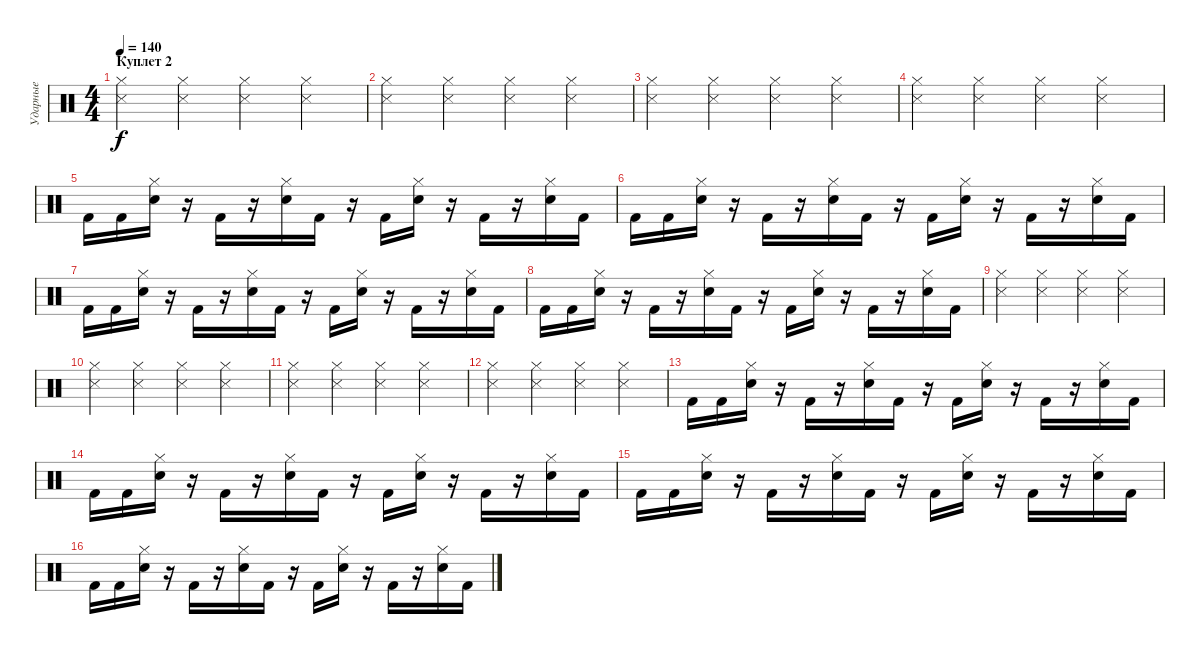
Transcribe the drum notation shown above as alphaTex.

\track ("Ударные" "Ударные") {instrument percussion}
\staff {score}
\articulation defaults
\ts (4 4)
\section ("" "Куплет 2")
\tempo 140
\clef neutral
\ks c
("Hi-Hat (closed)" "Snare (side stick) 3").4{dy f} ("Hi-Hat (closed)" "Snare (side stick) 3").4 ("Hi-Hat (closed)" "Snare (side stick) 3").4 ("Hi-Hat (closed)" "Snare (side stick) 3").4 |
("Hi-Hat (closed)" "Snare (side stick) 3").4 ("Hi-Hat (closed)" "Snare (side stick) 3").4 ("Hi-Hat (closed)" "Snare (side stick) 3").4 ("Hi-Hat (closed)" "Snare (side stick) 3").4 |
("Hi-Hat (closed)" "Snare (side stick) 3").4 ("Hi-Hat (closed)" "Snare (side stick) 3").4 ("Hi-Hat (closed)" "Snare (side stick) 3").4 ("Hi-Hat (closed)" "Snare (side stick) 3").4 |
("Hi-Hat (closed)" "Snare (side stick) 3").4 ("Hi-Hat (closed)" "Snare (side stick) 3").4 ("Hi-Hat (closed)" "Snare (side stick) 3").4 ("Hi-Hat (closed)" "Snare (side stick) 3").4 |
"Kick (hit) 2".16 "Kick (hit) 2".16 ("Snare (hit) 2" "Hi-Hat (closed)").16 r.16 "Kick (hit) 2".16 r.16 ("Snare (hit) 2" "Hi-Hat (closed)").16 "Kick (hit) 2".16 r.16 "Kick (hit) 2".16 ("Snare (hit) 2" "Hi-Hat (closed)").16 r.16 "Kick (hit) 2".16 r.16 ("Snare (hit) 2" "Hi-Hat (closed)").16 "Kick (hit) 2".16 |
"Kick (hit) 2".16 "Kick (hit) 2".16 ("Snare (hit) 2" "Hi-Hat (closed)").16 r.16 "Kick (hit) 2".16 r.16 ("Snare (hit) 2" "Hi-Hat (closed)").16 "Kick (hit) 2".16 r.16 "Kick (hit) 2".16 ("Snare (hit) 2" "Hi-Hat (closed)").16 r.16 "Kick (hit) 2".16 r.16 ("Snare (hit) 2" "Hi-Hat (closed)").16 "Kick (hit) 2".16 |
"Kick (hit) 2".16 "Kick (hit) 2".16 ("Snare (hit) 2" "Hi-Hat (closed)").16 r.16 "Kick (hit) 2".16 r.16 ("Snare (hit) 2" "Hi-Hat (closed)").16 "Kick (hit) 2".16 r.16 "Kick (hit) 2".16 ("Snare (hit) 2" "Hi-Hat (closed)").16 r.16 "Kick (hit) 2".16 r.16 ("Snare (hit) 2" "Hi-Hat (closed)").16 "Kick (hit) 2".16 |
"Kick (hit) 2".16 "Kick (hit) 2".16 ("Snare (hit) 2" "Hi-Hat (closed)").16 r.16 "Kick (hit) 2".16 r.16 ("Snare (hit) 2" "Hi-Hat (closed)").16 "Kick (hit) 2".16 r.16 "Kick (hit) 2".16 ("Snare (hit) 2" "Hi-Hat (closed)").16 r.16 "Kick (hit) 2".16 r.16 ("Snare (hit) 2" "Hi-Hat (closed)").16 "Kick (hit) 2".16 |
("Hi-Hat (closed)" "Snare (side stick) 3").4 ("Hi-Hat (closed)" "Snare (side stick) 3").4 ("Hi-Hat (closed)" "Snare (side stick) 3").4 ("Hi-Hat (closed)" "Snare (side stick) 3").4 |
("Hi-Hat (closed)" "Snare (side stick) 3").4 ("Hi-Hat (closed)" "Snare (side stick) 3").4 ("Hi-Hat (closed)" "Snare (side stick) 3").4 ("Hi-Hat (closed)" "Snare (side stick) 3").4 |
("Hi-Hat (closed)" "Snare (side stick) 3").4 ("Hi-Hat (closed)" "Snare (side stick) 3").4 ("Hi-Hat (closed)" "Snare (side stick) 3").4 ("Hi-Hat (closed)" "Snare (side stick) 3").4 |
("Hi-Hat (closed)" "Snare (side stick) 3").4 ("Hi-Hat (closed)" "Snare (side stick) 3").4 ("Hi-Hat (closed)" "Snare (side stick) 3").4 ("Hi-Hat (closed)" "Snare (side stick) 3").4 |
"Kick (hit) 2".16 "Kick (hit) 2".16 ("Snare (hit) 2" "Hi-Hat (closed)").16 r.16 "Kick (hit) 2".16 r.16 ("Snare (hit) 2" "Hi-Hat (closed)").16 "Kick (hit) 2".16 r.16 "Kick (hit) 2".16 ("Snare (hit) 2" "Hi-Hat (closed)").16 r.16 "Kick (hit) 2".16 r.16 ("Snare (hit) 2" "Hi-Hat (closed)").16 "Kick (hit) 2".16 |
"Kick (hit) 2".16 "Kick (hit) 2".16 ("Snare (hit) 2" "Hi-Hat (closed)").16 r.16 "Kick (hit) 2".16 r.16 ("Snare (hit) 2" "Hi-Hat (closed)").16 "Kick (hit) 2".16 r.16 "Kick (hit) 2".16 ("Snare (hit) 2" "Hi-Hat (closed)").16 r.16 "Kick (hit) 2".16 r.16 ("Snare (hit) 2" "Hi-Hat (closed)").16 "Kick (hit) 2".16 |
"Kick (hit) 2".16 "Kick (hit) 2".16 ("Snare (hit) 2" "Hi-Hat (closed)").16 r.16 "Kick (hit) 2".16 r.16 ("Snare (hit) 2" "Hi-Hat (closed)").16 "Kick (hit) 2".16 r.16 "Kick (hit) 2".16 ("Snare (hit) 2" "Hi-Hat (closed)").16 r.16 "Kick (hit) 2".16 r.16 ("Snare (hit) 2" "Hi-Hat (closed)").16 "Kick (hit) 2".16 |
"Kick (hit) 2".16 "Kick (hit) 2".16 ("Snare (hit) 2" "Hi-Hat (closed)").16 r.16 "Kick (hit) 2".16 r.16 ("Snare (hit) 2" "Hi-Hat (closed)").16 "Kick (hit) 2".16 r.16 "Kick (hit) 2".16 ("Snare (hit) 2" "Hi-Hat (closed)").16 r.16 "Kick (hit) 2".16 r.16 ("Snare (hit) 2" "Hi-Hat (closed)").16 "Kick (hit) 2".16
